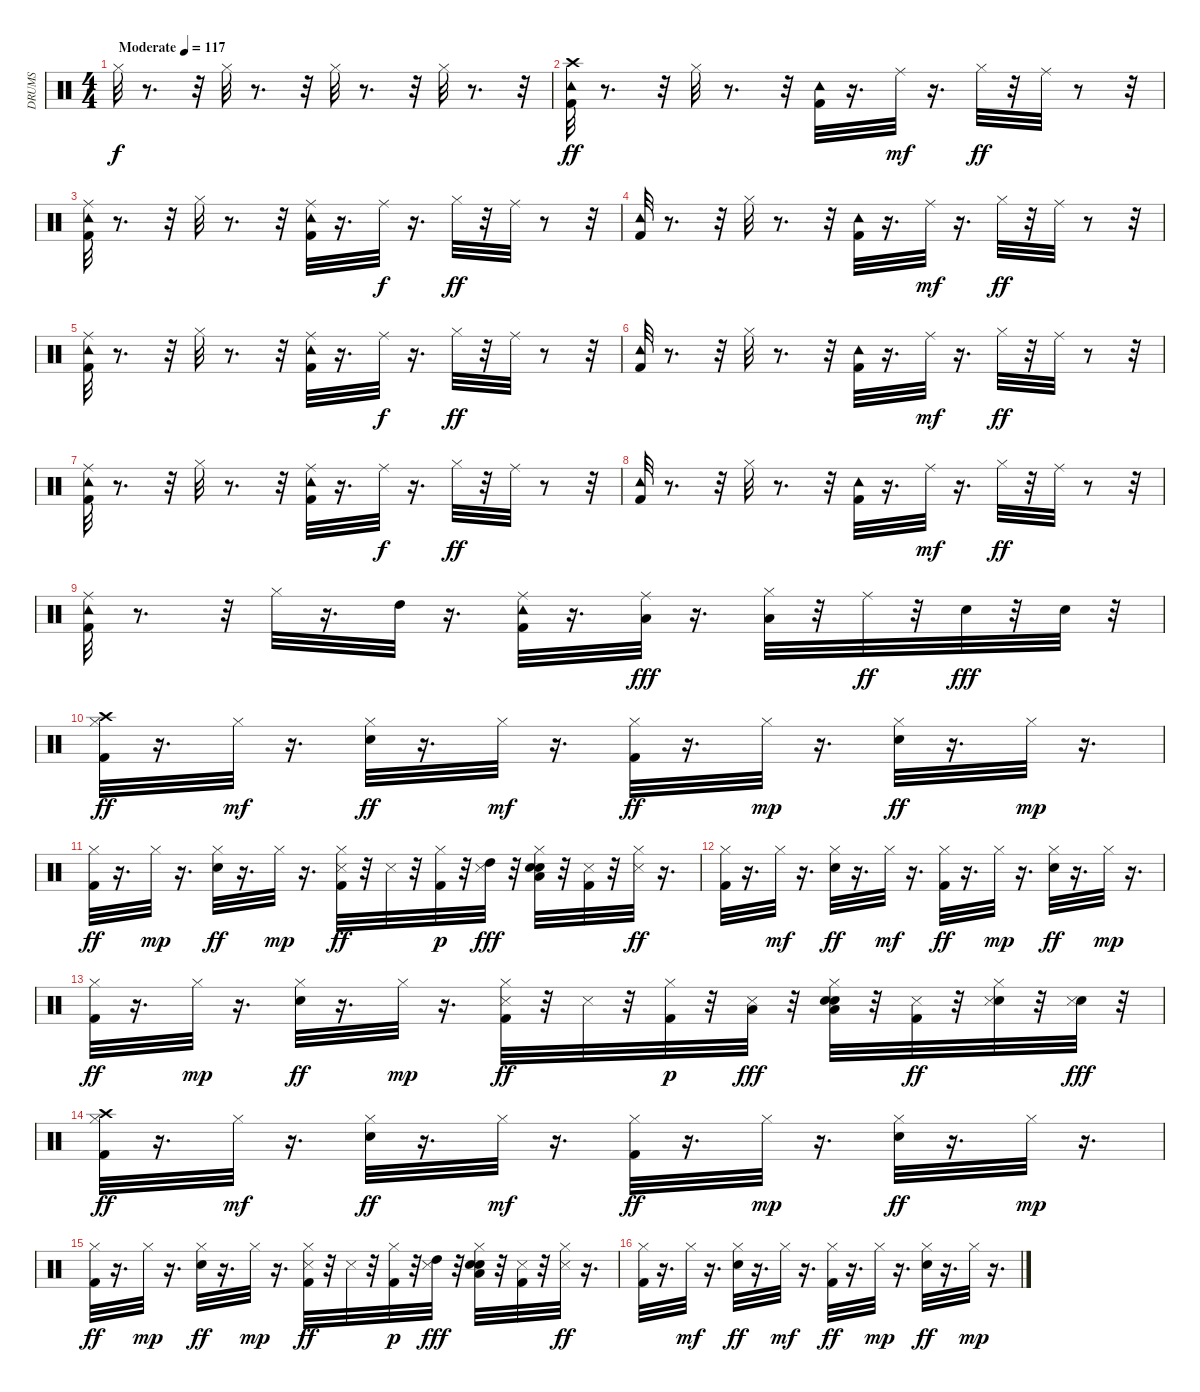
\track ("DRUMS" "DRUMS") {instrument percussion}
\staff {score}
\articulation defaults
\ts (4 4)
\tempo (117 "Moderate")
\clef neutral
\ks c "Hi-Hat (closed)".32{dy f}
r.8{d} r.32 "Hi-Hat (closed)".32 r.8{d} r.32 "Hi-Hat (closed)".32 r.8{d} r.32 "Hi-Hat (closed)".32 r.8{d} r.32 |
("Crash high (hit)" "Kick (hit) 2" "Tambourine (hit)").32{dy ff} r.8{d} r.32 "Hi-Hat (closed)".32 r.8{d} r.32 ("Kick (hit) 2" "Tambourine (hit)").32 r.16{d} "Ride (middle)".32{dy mf} r.16{d} "Hi-Hat (closed)".32{dy ff} r.32 "Ride (middle)".32 r.8 r.32 |
("Ride (middle)" "Kick (hit) 2" "Tambourine (hit)").32 r.8{d} r.32 "Hi-Hat (closed)".32 r.8{d} r.32 ("Ride (middle)" "Kick (hit) 2" "Tambourine (hit)").32 r.16{d} "Ride (middle)".32{dy f} r.16{d} "Hi-Hat (closed)".32{dy ff} r.32 "Ride (middle)".32 r.8 r.32 |
("Kick (hit) 2" "Tambourine (hit)").32 r.8{d} r.32 "Hi-Hat (closed)".32 r.8{d} r.32 ("Kick (hit) 2" "Tambourine (hit)").32 r.16{d} "Ride (middle)".32{dy mf} r.16{d} "Hi-Hat (closed)".32{dy ff} r.32 "Ride (middle)".32 r.8 r.32 |
("Ride (middle)" "Kick (hit) 2" "Tambourine (hit)").32 r.8{d} r.32 "Hi-Hat (closed)".32 r.8{d} r.32 ("Ride (middle)" "Kick (hit) 2" "Tambourine (hit)").32 r.16{d} "Ride (middle)".32{dy f} r.16{d} "Hi-Hat (closed)".32{dy ff} r.32 "Ride (middle)".32 r.8 r.32 |
("Kick (hit) 2" "Tambourine (hit)").32 r.8{d} r.32 "Hi-Hat (closed)".32 r.8{d} r.32 ("Kick (hit) 2" "Tambourine (hit)").32 r.16{d} "Ride (middle)".32{dy mf} r.16{d} "Hi-Hat (closed)".32{dy ff} r.32 "Ride (middle)".32 r.8 r.32 |
("Ride (middle)" "Kick (hit) 2" "Tambourine (hit)").32 r.8{d} r.32 "Hi-Hat (closed)".32 r.8{d} r.32 ("Ride (middle)" "Kick (hit) 2" "Tambourine (hit)").32 r.16{d} "Ride (middle)".32{dy f} r.16{d} "Hi-Hat (closed)".32{dy ff} r.32 "Ride (middle)".32 r.8 r.32 |
("Kick (hit) 2" "Tambourine (hit)").32 r.8{d} r.32 "Hi-Hat (closed)".32 r.8{d} r.32 ("Kick (hit) 2" "Tambourine (hit)").32 r.16{d} "Ride (middle)".32{dy mf} r.16{d} "Hi-Hat (closed)".32{dy ff} r.32 "Ride (middle)".32 r.8 r.32 |
("Ride (middle)" "Kick (hit) 2" "Tambourine (hit)").32 r.8{d} r.32 "Hi-Hat (closed)".32 r.16{d} "High Tom (hit)".32 r.16{d} ("Ride (middle)" "Kick (hit) 2" "Tambourine (hit)").32 r.16{d} ("Ride (middle)" "Low Tom (hit)").32{dy fff} r.16{d} ("Hi-Hat (closed)" "Low Floor Tom (hit)").32 r.32 "Ride (middle)".32{dy ff} r.32 "Snare (hit) 2".32{dy fff} r.32 "Snare (hit) 2".32 r.32 |
("Crash high (hit)" "Kick (hit) 2" "Hi-Hat (closed)").32{dy ff} r.16{d} "Hi-Hat (closed)".32{dy mf} r.16{d} ("Snare (hit) 2" "Hi-Hat (closed)").32{dy ff} r.16{d} "Hi-Hat (closed)".32{dy mf} r.16{d} ("Kick (hit) 2" "Hi-Hat (closed)").32{dy ff} r.16{d} "Hi-Hat (closed)".32{dy mp} r.16{d} ("Snare (hit) 2" "Hi-Hat (closed)").32{dy ff} r.16{d} "Hi-Hat (closed)".32{dy mp} r.16{d} |
("Kick (hit) 2" "Hi-Hat (closed)").32{dy ff} r.16{d} "Hi-Hat (closed)".32{dy mp} r.16{d} ("Snare (hit) 2" "Hi-Hat (closed)").32{dy ff} r.16{d} "Hi-Hat (closed)".32{dy mp} r.16{d} ("Kick (hit) 2" "Hi-Hat (closed)" "Snare (side stick) 3").32{dy ff} r.32 "Snare (side stick) 3".32 r.32 ("Kick (hit) 2" "Hi-Hat (closed)").32{dy p} r.32 ("High Tom (hit)" "Snare (side stick) 3").32{dy fff} r.32 ("Snare (hit) 2" "Hi-Hat (closed)" "Low Tom (hit)" "Hand Clap (hit)").32 r.32 ("Kick (hit) 2" "Snare (side stick) 3").32 r.32 ("Hi-Hat (closed)" "Snare (side stick) 3").32{dy ff} r.16{d} |
("Kick (hit) 2" "Hi-Hat (closed)").32 r.16{d} "Hi-Hat (closed)".32{dy mf} r.16{d} ("Snare (hit) 2" "Hi-Hat (closed)").32{dy ff} r.16{d} "Hi-Hat (closed)".32{dy mf} r.16{d} ("Kick (hit) 2" "Hi-Hat (closed)").32{dy ff} r.16{d} "Hi-Hat (closed)".32{dy mp} r.16{d} ("Snare (hit) 2" "Hi-Hat (closed)").32{dy ff} r.16{d} "Hi-Hat (closed)".32{dy mp} r.16{d} |
("Kick (hit) 2" "Hi-Hat (closed)").32{dy ff} r.16{d} "Hi-Hat (closed)".32{dy mp} r.16{d} ("Snare (hit) 2" "Hi-Hat (closed)").32{dy ff} r.16{d} "Hi-Hat (closed)".32{dy mp} r.16{d} ("Kick (hit) 2" "Hi-Hat (closed)" "Snare (side stick) 3").32{dy ff} r.32 "Snare (side stick) 3".32 r.32 ("Kick (hit) 2" "Hi-Hat (closed)").32{dy p} r.32 ("Low Tom (hit)" "Snare (side stick) 3").32{dy fff} r.32 ("Snare (hit) 2" "Hi-Hat (closed)" "Low Floor Tom (hit)" "Hand Clap (hit)").32 r.32 ("Kick (hit) 2" "Snare (side stick) 3").32{dy ff} r.32 ("Snare (hit) 2" "Hi-Hat (closed)" "Snare (side stick) 3").32 r.32 ("Snare (hit) 2" "Snare (side stick) 3").32{dy fff} r.32 |
("Crash high (hit)" "Kick (hit) 2" "Hi-Hat (closed)").32{dy ff} r.16{d} "Hi-Hat (closed)".32{dy mf} r.16{d} ("Snare (hit) 2" "Hi-Hat (closed)").32{dy ff} r.16{d} "Hi-Hat (closed)".32{dy mf} r.16{d} ("Kick (hit) 2" "Hi-Hat (closed)").32{dy ff} r.16{d} "Hi-Hat (closed)".32{dy mp} r.16{d} ("Snare (hit) 2" "Hi-Hat (closed)").32{dy ff} r.16{d} "Hi-Hat (closed)".32{dy mp} r.16{d} |
("Kick (hit) 2" "Hi-Hat (closed)").32{dy ff} r.16{d} "Hi-Hat (closed)".32{dy mp} r.16{d} ("Snare (hit) 2" "Hi-Hat (closed)").32{dy ff} r.16{d} "Hi-Hat (closed)".32{dy mp} r.16{d} ("Kick (hit) 2" "Hi-Hat (closed)" "Snare (side stick) 3").32{dy ff} r.32 "Snare (side stick) 3".32 r.32 ("Kick (hit) 2" "Hi-Hat (closed)").32{dy p} r.32 ("High Tom (hit)" "Snare (side stick) 3").32{dy fff} r.32 ("Snare (hit) 2" "Hi-Hat (closed)" "Low Tom (hit)" "Hand Clap (hit)").32 r.32 ("Kick (hit) 2" "Snare (side stick) 3").32 r.32 ("Hi-Hat (closed)" "Snare (side stick) 3").32{dy ff} r.16{d} |
("Kick (hit) 2" "Hi-Hat (closed)").32 r.16{d} "Hi-Hat (closed)".32{dy mf} r.16{d} ("Snare (hit) 2" "Hi-Hat (closed)").32{dy ff} r.16{d} "Hi-Hat (closed)".32{dy mf} r.16{d} ("Kick (hit) 2" "Hi-Hat (closed)").32{dy ff} r.16{d} "Hi-Hat (closed)".32{dy mp} r.16{d} ("Snare (hit) 2" "Hi-Hat (closed)").32{dy ff} r.16{d} "Hi-Hat (closed)".32{dy mp} r.16{d}
